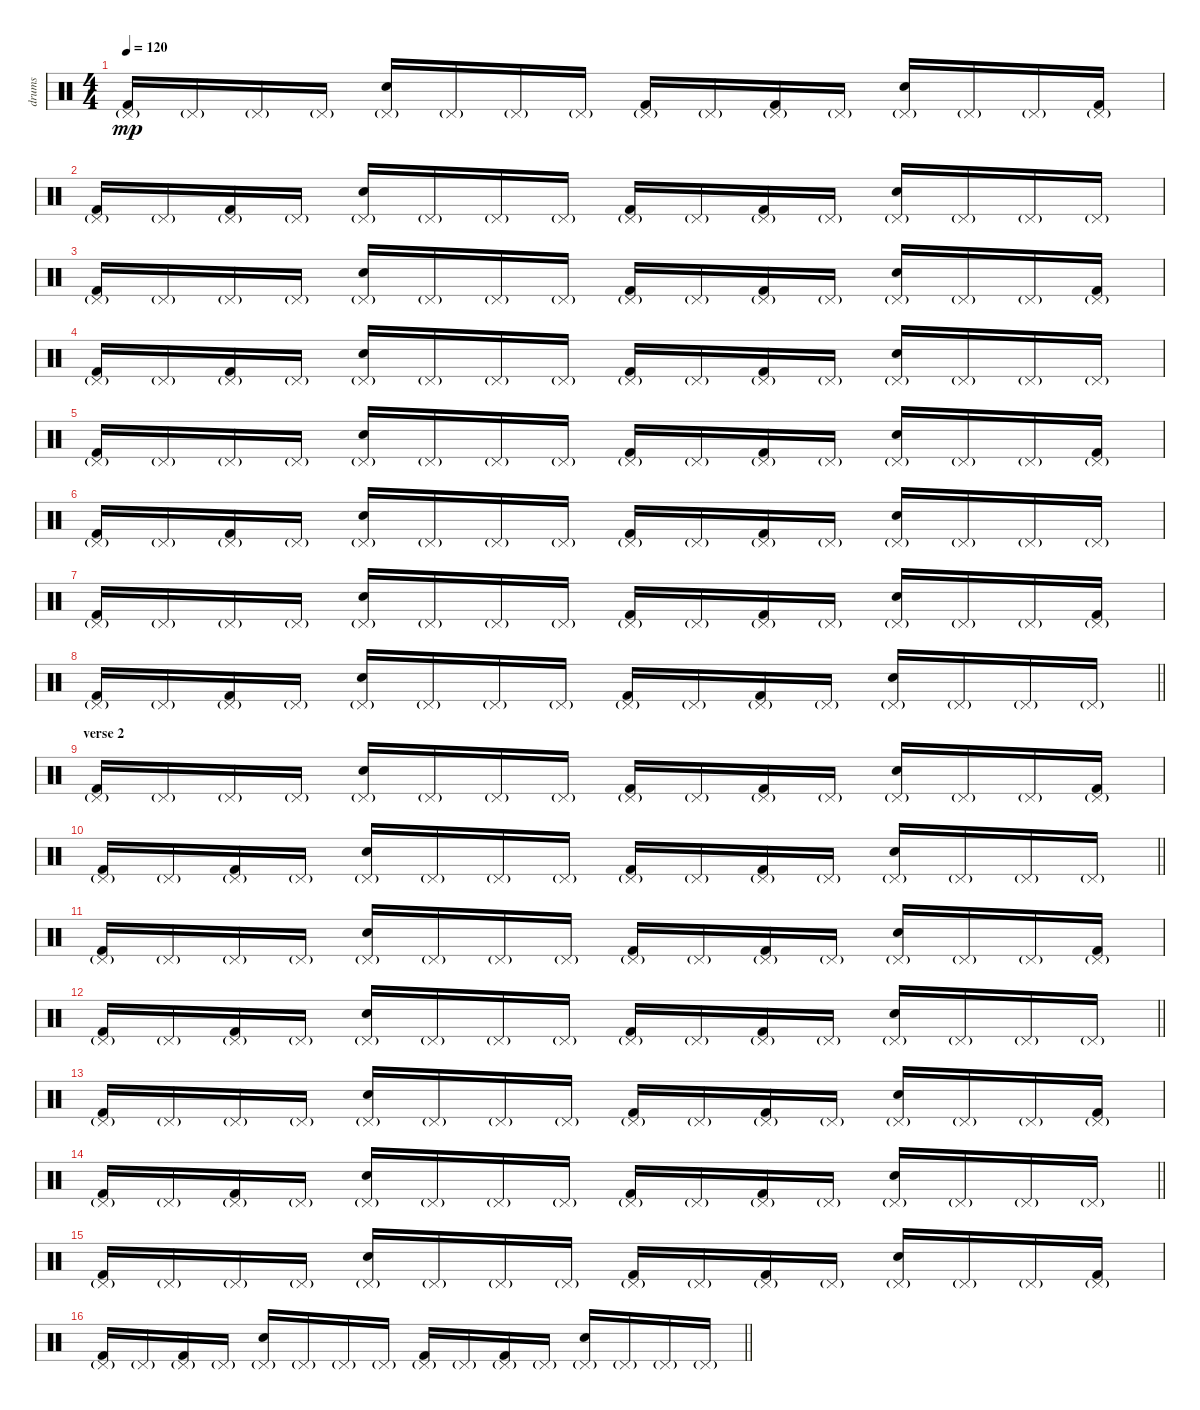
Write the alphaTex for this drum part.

\track ("drums" "drums") {instrument percussion}
\staff {score}
\articulation defaults
\ts (4 4)
\tempo 120
\clef neutral
\ks c
("Kick (hit) 2" "Pedal Hi-Hat (hit)"{g}).16{dy mp} "Pedal Hi-Hat (hit)"{g}.16 "Pedal Hi-Hat (hit)"{g}.16 "Pedal Hi-Hat (hit)"{g}.16 ("Electric Snare (hit)" "Pedal Hi-Hat (hit)"{g}).16 "Pedal Hi-Hat (hit)"{g}.16 "Pedal Hi-Hat (hit)"{g}.16 "Pedal Hi-Hat (hit)"{g}.16 ("Kick (hit) 2" "Pedal Hi-Hat (hit)"{g}).16 "Pedal Hi-Hat (hit)"{g}.16 ("Kick (hit) 2" "Pedal Hi-Hat (hit)"{g}).16 "Pedal Hi-Hat (hit)"{g}.16 ("Electric Snare (hit)" "Pedal Hi-Hat (hit)"{g}).16 "Pedal Hi-Hat (hit)"{g}.16 "Pedal Hi-Hat (hit)"{g}.16 ("Kick (hit) 2" "Pedal Hi-Hat (hit)"{g}).16 |
("Kick (hit) 2" "Pedal Hi-Hat (hit)"{g}).16 "Pedal Hi-Hat (hit)"{g}.16 ("Kick (hit) 2" "Pedal Hi-Hat (hit)"{g}).16 "Pedal Hi-Hat (hit)"{g}.16 ("Electric Snare (hit)" "Pedal Hi-Hat (hit)"{g}).16 "Pedal Hi-Hat (hit)"{g}.16 "Pedal Hi-Hat (hit)"{g}.16 "Pedal Hi-Hat (hit)"{g}.16 ("Kick (hit) 2" "Pedal Hi-Hat (hit)"{g}).16 "Pedal Hi-Hat (hit)"{g}.16 ("Kick (hit) 2" "Pedal Hi-Hat (hit)"{g}).16 "Pedal Hi-Hat (hit)"{g}.16 ("Electric Snare (hit)" "Pedal Hi-Hat (hit)"{g}).16 "Pedal Hi-Hat (hit)"{g}.16 "Pedal Hi-Hat (hit)"{g}.16 "Pedal Hi-Hat (hit)"{g}.16 |
("Kick (hit) 2" "Pedal Hi-Hat (hit)"{g}).16 "Pedal Hi-Hat (hit)"{g}.16 "Pedal Hi-Hat (hit)"{g}.16 "Pedal Hi-Hat (hit)"{g}.16 ("Electric Snare (hit)" "Pedal Hi-Hat (hit)"{g}).16 "Pedal Hi-Hat (hit)"{g}.16 "Pedal Hi-Hat (hit)"{g}.16 "Pedal Hi-Hat (hit)"{g}.16 ("Kick (hit) 2" "Pedal Hi-Hat (hit)"{g}).16 "Pedal Hi-Hat (hit)"{g}.16 ("Kick (hit) 2" "Pedal Hi-Hat (hit)"{g}).16 "Pedal Hi-Hat (hit)"{g}.16 ("Electric Snare (hit)" "Pedal Hi-Hat (hit)"{g}).16 "Pedal Hi-Hat (hit)"{g}.16 "Pedal Hi-Hat (hit)"{g}.16 ("Kick (hit) 2" "Pedal Hi-Hat (hit)"{g}).16 |
("Kick (hit) 2" "Pedal Hi-Hat (hit)"{g}).16 "Pedal Hi-Hat (hit)"{g}.16 ("Kick (hit) 2" "Pedal Hi-Hat (hit)"{g}).16 "Pedal Hi-Hat (hit)"{g}.16 ("Electric Snare (hit)" "Pedal Hi-Hat (hit)"{g}).16 "Pedal Hi-Hat (hit)"{g}.16 "Pedal Hi-Hat (hit)"{g}.16 "Pedal Hi-Hat (hit)"{g}.16 ("Kick (hit) 2" "Pedal Hi-Hat (hit)"{g}).16 "Pedal Hi-Hat (hit)"{g}.16 ("Kick (hit) 2" "Pedal Hi-Hat (hit)"{g}).16 "Pedal Hi-Hat (hit)"{g}.16 ("Electric Snare (hit)" "Pedal Hi-Hat (hit)"{g}).16 "Pedal Hi-Hat (hit)"{g}.16 "Pedal Hi-Hat (hit)"{g}.16 "Pedal Hi-Hat (hit)"{g}.16 |
("Kick (hit) 2" "Pedal Hi-Hat (hit)"{g}).16 "Pedal Hi-Hat (hit)"{g}.16 "Pedal Hi-Hat (hit)"{g}.16 "Pedal Hi-Hat (hit)"{g}.16 ("Hand Clap (hit)" "Pedal Hi-Hat (hit)"{g}).16 "Pedal Hi-Hat (hit)"{g}.16 "Pedal Hi-Hat (hit)"{g}.16 "Pedal Hi-Hat (hit)"{g}.16 ("Kick (hit) 2" "Pedal Hi-Hat (hit)"{g}).16 "Pedal Hi-Hat (hit)"{g}.16 ("Kick (hit) 2" "Pedal Hi-Hat (hit)"{g}).16 "Pedal Hi-Hat (hit)"{g}.16 ("Hand Clap (hit)" "Pedal Hi-Hat (hit)"{g}).16 "Pedal Hi-Hat (hit)"{g}.16 "Pedal Hi-Hat (hit)"{g}.16 ("Kick (hit) 2" "Pedal Hi-Hat (hit)"{g}).16 |
("Kick (hit) 2" "Pedal Hi-Hat (hit)"{g}).16 "Pedal Hi-Hat (hit)"{g}.16 ("Kick (hit) 2" "Pedal Hi-Hat (hit)"{g}).16 "Pedal Hi-Hat (hit)"{g}.16 ("Hand Clap (hit)" "Pedal Hi-Hat (hit)"{g}).16 "Pedal Hi-Hat (hit)"{g}.16 "Pedal Hi-Hat (hit)"{g}.16 "Pedal Hi-Hat (hit)"{g}.16 ("Kick (hit) 2" "Pedal Hi-Hat (hit)"{g}).16 "Pedal Hi-Hat (hit)"{g}.16 ("Kick (hit) 2" "Pedal Hi-Hat (hit)"{g}).16 "Pedal Hi-Hat (hit)"{g}.16 ("Hand Clap (hit)" "Pedal Hi-Hat (hit)"{g}).16 "Pedal Hi-Hat (hit)"{g}.16 "Pedal Hi-Hat (hit)"{g}.16 "Pedal Hi-Hat (hit)"{g}.16 |
("Kick (hit) 2" "Pedal Hi-Hat (hit)"{g}).16 "Pedal Hi-Hat (hit)"{g}.16 "Pedal Hi-Hat (hit)"{g}.16 "Pedal Hi-Hat (hit)"{g}.16 ("Hand Clap (hit)" "Pedal Hi-Hat (hit)"{g}).16 "Pedal Hi-Hat (hit)"{g}.16 "Pedal Hi-Hat (hit)"{g}.16 "Pedal Hi-Hat (hit)"{g}.16 ("Kick (hit) 2" "Pedal Hi-Hat (hit)"{g}).16 "Pedal Hi-Hat (hit)"{g}.16 ("Kick (hit) 2" "Pedal Hi-Hat (hit)"{g}).16 "Pedal Hi-Hat (hit)"{g}.16 ("Hand Clap (hit)" "Pedal Hi-Hat (hit)"{g}).16 "Pedal Hi-Hat (hit)"{g}.16 "Pedal Hi-Hat (hit)"{g}.16 ("Kick (hit) 2" "Pedal Hi-Hat (hit)"{g}).16 |
\barLineRight lightlight
("Kick (hit) 2" "Pedal Hi-Hat (hit)"{g}).16 "Pedal Hi-Hat (hit)"{g}.16 ("Kick (hit) 2" "Pedal Hi-Hat (hit)"{g}).16 "Pedal Hi-Hat (hit)"{g}.16 ("Hand Clap (hit)" "Pedal Hi-Hat (hit)"{g}).16 "Pedal Hi-Hat (hit)"{g}.16 "Pedal Hi-Hat (hit)"{g}.16 "Pedal Hi-Hat (hit)"{g}.16 ("Kick (hit) 2" "Pedal Hi-Hat (hit)"{g}).16 "Pedal Hi-Hat (hit)"{g}.16 ("Kick (hit) 2" "Pedal Hi-Hat (hit)"{g}).16 "Pedal Hi-Hat (hit)"{g}.16 ("Hand Clap (hit)" "Pedal Hi-Hat (hit)"{g}).16 "Pedal Hi-Hat (hit)"{g}.16 "Pedal Hi-Hat (hit)"{g}.16 "Pedal Hi-Hat (hit)"{g}.16 |
\section ("" "verse 2")
("Kick (hit) 2" "Pedal Hi-Hat (hit)"{g}).16 "Pedal Hi-Hat (hit)"{g}.16 "Pedal Hi-Hat (hit)"{g}.16 "Pedal Hi-Hat (hit)"{g}.16 ("Hand Clap (hit)" "Pedal Hi-Hat (hit)"{g}).16 "Pedal Hi-Hat (hit)"{g}.16 "Pedal Hi-Hat (hit)"{g}.16 "Pedal Hi-Hat (hit)"{g}.16 ("Kick (hit) 2" "Pedal Hi-Hat (hit)"{g}).16 "Pedal Hi-Hat (hit)"{g}.16 ("Kick (hit) 2" "Pedal Hi-Hat (hit)"{g}).16 "Pedal Hi-Hat (hit)"{g}.16 ("Hand Clap (hit)" "Pedal Hi-Hat (hit)"{g}).16 "Pedal Hi-Hat (hit)"{g}.16 "Pedal Hi-Hat (hit)"{g}.16 ("Kick (hit) 2" "Pedal Hi-Hat (hit)"{g}).16 |
\barLineRight lightlight
("Kick (hit) 2" "Pedal Hi-Hat (hit)"{g}).16 "Pedal Hi-Hat (hit)"{g}.16 ("Kick (hit) 2" "Pedal Hi-Hat (hit)"{g}).16 "Pedal Hi-Hat (hit)"{g}.16 ("Hand Clap (hit)" "Pedal Hi-Hat (hit)"{g}).16 "Pedal Hi-Hat (hit)"{g}.16 "Pedal Hi-Hat (hit)"{g}.16 "Pedal Hi-Hat (hit)"{g}.16 ("Kick (hit) 2" "Pedal Hi-Hat (hit)"{g}).16 "Pedal Hi-Hat (hit)"{g}.16 ("Kick (hit) 2" "Pedal Hi-Hat (hit)"{g}).16 "Pedal Hi-Hat (hit)"{g}.16 ("Hand Clap (hit)" "Pedal Hi-Hat (hit)"{g}).16 "Pedal Hi-Hat (hit)"{g}.16 "Pedal Hi-Hat (hit)"{g}.16 "Pedal Hi-Hat (hit)"{g}.16 |
("Kick (hit) 2" "Pedal Hi-Hat (hit)"{g}).16 "Pedal Hi-Hat (hit)"{g}.16 "Pedal Hi-Hat (hit)"{g}.16 "Pedal Hi-Hat (hit)"{g}.16 ("Hand Clap (hit)" "Pedal Hi-Hat (hit)"{g}).16 "Pedal Hi-Hat (hit)"{g}.16 "Pedal Hi-Hat (hit)"{g}.16 "Pedal Hi-Hat (hit)"{g}.16 ("Kick (hit) 2" "Pedal Hi-Hat (hit)"{g}).16 "Pedal Hi-Hat (hit)"{g}.16 ("Kick (hit) 2" "Pedal Hi-Hat (hit)"{g}).16 "Pedal Hi-Hat (hit)"{g}.16 ("Hand Clap (hit)" "Pedal Hi-Hat (hit)"{g}).16 "Pedal Hi-Hat (hit)"{g}.16 "Pedal Hi-Hat (hit)"{g}.16 ("Kick (hit) 2" "Pedal Hi-Hat (hit)"{g}).16 |
\barLineRight lightlight
("Kick (hit) 2" "Pedal Hi-Hat (hit)"{g}).16 "Pedal Hi-Hat (hit)"{g}.16 ("Kick (hit) 2" "Pedal Hi-Hat (hit)"{g}).16 "Pedal Hi-Hat (hit)"{g}.16 ("Hand Clap (hit)" "Pedal Hi-Hat (hit)"{g}).16 "Pedal Hi-Hat (hit)"{g}.16 "Pedal Hi-Hat (hit)"{g}.16 "Pedal Hi-Hat (hit)"{g}.16 ("Kick (hit) 2" "Pedal Hi-Hat (hit)"{g}).16 "Pedal Hi-Hat (hit)"{g}.16 ("Kick (hit) 2" "Pedal Hi-Hat (hit)"{g}).16 "Pedal Hi-Hat (hit)"{g}.16 ("Hand Clap (hit)" "Pedal Hi-Hat (hit)"{g}).16 "Pedal Hi-Hat (hit)"{g}.16 "Pedal Hi-Hat (hit)"{g}.16 "Pedal Hi-Hat (hit)"{g}.16 |
("Kick (hit) 2" "Pedal Hi-Hat (hit)"{g}).16 "Pedal Hi-Hat (hit)"{g}.16 "Pedal Hi-Hat (hit)"{g}.16 "Pedal Hi-Hat (hit)"{g}.16 ("Hand Clap (hit)" "Pedal Hi-Hat (hit)"{g}).16 "Pedal Hi-Hat (hit)"{g}.16 "Pedal Hi-Hat (hit)"{g}.16 "Pedal Hi-Hat (hit)"{g}.16 ("Kick (hit) 2" "Pedal Hi-Hat (hit)"{g}).16 "Pedal Hi-Hat (hit)"{g}.16 ("Kick (hit) 2" "Pedal Hi-Hat (hit)"{g}).16 "Pedal Hi-Hat (hit)"{g}.16 ("Hand Clap (hit)" "Pedal Hi-Hat (hit)"{g}).16 "Pedal Hi-Hat (hit)"{g}.16 "Pedal Hi-Hat (hit)"{g}.16 ("Kick (hit) 2" "Pedal Hi-Hat (hit)"{g}).16 |
\barLineRight lightlight
("Kick (hit) 2" "Pedal Hi-Hat (hit)"{g}).16 "Pedal Hi-Hat (hit)"{g}.16 ("Kick (hit) 2" "Pedal Hi-Hat (hit)"{g}).16 "Pedal Hi-Hat (hit)"{g}.16 ("Hand Clap (hit)" "Pedal Hi-Hat (hit)"{g}).16 "Pedal Hi-Hat (hit)"{g}.16 "Pedal Hi-Hat (hit)"{g}.16 "Pedal Hi-Hat (hit)"{g}.16 ("Kick (hit) 2" "Pedal Hi-Hat (hit)"{g}).16 "Pedal Hi-Hat (hit)"{g}.16 ("Kick (hit) 2" "Pedal Hi-Hat (hit)"{g}).16 "Pedal Hi-Hat (hit)"{g}.16 ("Hand Clap (hit)" "Pedal Hi-Hat (hit)"{g}).16 "Pedal Hi-Hat (hit)"{g}.16 "Pedal Hi-Hat (hit)"{g}.16 "Pedal Hi-Hat (hit)"{g}.16 |
("Kick (hit) 2" "Pedal Hi-Hat (hit)"{g}).16 "Pedal Hi-Hat (hit)"{g}.16 "Pedal Hi-Hat (hit)"{g}.16 "Pedal Hi-Hat (hit)"{g}.16 ("Hand Clap (hit)" "Pedal Hi-Hat (hit)"{g}).16 "Pedal Hi-Hat (hit)"{g}.16 "Pedal Hi-Hat (hit)"{g}.16 "Pedal Hi-Hat (hit)"{g}.16 ("Kick (hit) 2" "Pedal Hi-Hat (hit)"{g}).16 "Pedal Hi-Hat (hit)"{g}.16 ("Kick (hit) 2" "Pedal Hi-Hat (hit)"{g}).16 "Pedal Hi-Hat (hit)"{g}.16 ("Hand Clap (hit)" "Pedal Hi-Hat (hit)"{g}).16 "Pedal Hi-Hat (hit)"{g}.16 "Pedal Hi-Hat (hit)"{g}.16 ("Kick (hit) 2" "Pedal Hi-Hat (hit)"{g}).16 |
\barLineRight lightlight
("Kick (hit) 2" "Pedal Hi-Hat (hit)"{g}).16 "Pedal Hi-Hat (hit)"{g}.16 ("Kick (hit) 2" "Pedal Hi-Hat (hit)"{g}).16 "Pedal Hi-Hat (hit)"{g}.16 ("Hand Clap (hit)" "Pedal Hi-Hat (hit)"{g}).16 "Pedal Hi-Hat (hit)"{g}.16 "Pedal Hi-Hat (hit)"{g}.16 "Pedal Hi-Hat (hit)"{g}.16 ("Kick (hit) 2" "Pedal Hi-Hat (hit)"{g}).16 "Pedal Hi-Hat (hit)"{g}.16 ("Kick (hit) 2" "Pedal Hi-Hat (hit)"{g}).16 "Pedal Hi-Hat (hit)"{g}.16 ("Hand Clap (hit)" "Pedal Hi-Hat (hit)"{g}).16 "Pedal Hi-Hat (hit)"{g}.16 "Pedal Hi-Hat (hit)"{g}.16 "Pedal Hi-Hat (hit)"{g}.16
